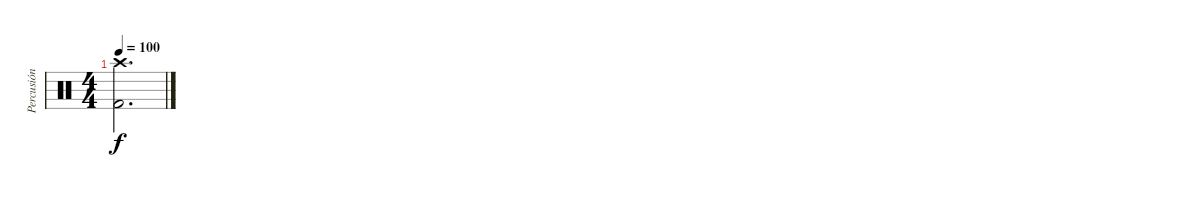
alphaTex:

\track ("Percusión" "Percusión") {instrument percussion}
\staff {score}
\articulation defaults
\ts (4 4)
\tempo 100
\clef neutral
\ks c
("Crash high (hit)" "Kick (hit) 2").2{d dy f}
